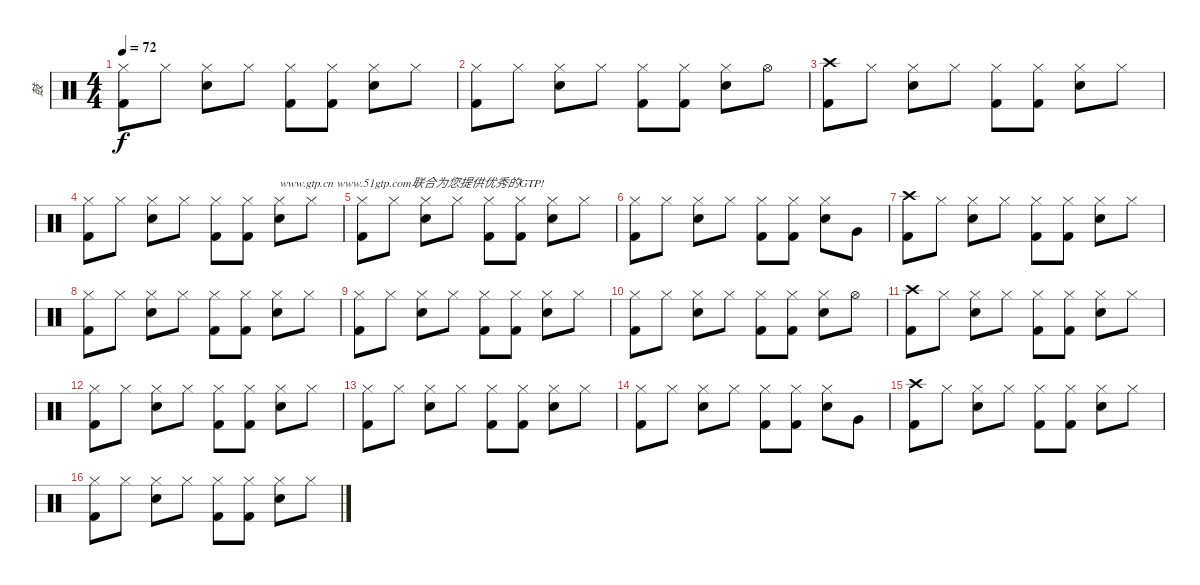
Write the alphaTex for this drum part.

\track ("鼓" "鼓") {instrument percussion}
\staff {score}
\articulation defaults
\ts (4 4)
\tempo 72
\clef neutral
\ks c
("Hi-Hat (closed)" "Kick (hit) 2").8{dy f} "Hi-Hat (closed)".8 ("Hi-Hat (closed)" "Electric Snare (hit)").8 "Hi-Hat (closed)".8 ("Hi-Hat (closed)" "Kick (hit) 2").8 ("Hi-Hat (closed)" "Kick (hit) 2").8 ("Hi-Hat (closed)" "Electric Snare (hit)").8 "Hi-Hat (closed)".8 |
("Hi-Hat (closed)" "Kick (hit) 2").8 "Hi-Hat (closed)".8 ("Hi-Hat (closed)" "Electric Snare (hit)").8 "Hi-Hat (closed)".8 ("Hi-Hat (closed)" "Kick (hit) 2").8 ("Hi-Hat (closed)" "Kick (hit) 2").8 ("Hi-Hat (closed)" "Electric Snare (hit)").8 "Hi-Hat (open)".8 |
("Crash high (hit)" "Kick (hit) 2").8 "Hi-Hat (closed)".8 ("Hi-Hat (closed)" "Electric Snare (hit)").8 "Hi-Hat (closed)".8 ("Hi-Hat (closed)" "Kick (hit) 2").8 ("Hi-Hat (closed)" "Kick (hit) 2").8 ("Hi-Hat (closed)" "Electric Snare (hit)").8 "Hi-Hat (closed)".8 |
("Hi-Hat (closed)" "Kick (hit) 2").8 "Hi-Hat (closed)".8 ("Hi-Hat (closed)" "Electric Snare (hit)").8 "Hi-Hat (closed)".8 ("Hi-Hat (closed)" "Kick (hit) 2").8 ("Hi-Hat (closed)" "Kick (hit) 2").8 ("Hi-Hat (closed)" "Electric Snare (hit)").8{txt "www.gtp.cn www.51gtp.com联合为您提供优秀的GTP!"} "Hi-Hat (closed)".8 |
("Hi-Hat (closed)" "Kick (hit) 2").8 "Hi-Hat (closed)".8 ("Hi-Hat (closed)" "Electric Snare (hit)").8 "Hi-Hat (closed)".8 ("Hi-Hat (closed)" "Kick (hit) 2").8 ("Hi-Hat (closed)" "Kick (hit) 2").8 ("Hi-Hat (closed)" "Electric Snare (hit)").8 "Hi-Hat (closed)".8 |
("Hi-Hat (closed)" "Kick (hit) 2").8 "Hi-Hat (closed)".8 ("Hi-Hat (closed)" "Electric Snare (hit)").8 "Hi-Hat (closed)".8 ("Hi-Hat (closed)" "Kick (hit) 2").8 ("Hi-Hat (closed)" "Kick (hit) 2").8 ("Hi-Hat (closed)" "Electric Snare (hit)").8 "Very Low Tom (hit)".8 |
("Crash high (hit)" "Kick (hit) 2").8 "Hi-Hat (closed)".8 ("Hi-Hat (closed)" "Electric Snare (hit)").8 "Hi-Hat (closed)".8 ("Hi-Hat (closed)" "Kick (hit) 2").8 ("Hi-Hat (closed)" "Kick (hit) 2").8 ("Hi-Hat (closed)" "Electric Snare (hit)").8 "Hi-Hat (closed)".8 |
("Hi-Hat (closed)" "Kick (hit) 2").8 "Hi-Hat (closed)".8 ("Hi-Hat (closed)" "Electric Snare (hit)").8 "Hi-Hat (closed)".8 ("Hi-Hat (closed)" "Kick (hit) 2").8 ("Hi-Hat (closed)" "Kick (hit) 2").8 ("Hi-Hat (closed)" "Electric Snare (hit)").8 "Hi-Hat (closed)".8 |
("Hi-Hat (closed)" "Kick (hit) 2").8 "Hi-Hat (closed)".8 ("Hi-Hat (closed)" "Electric Snare (hit)").8 "Hi-Hat (closed)".8 ("Hi-Hat (closed)" "Kick (hit) 2").8 ("Hi-Hat (closed)" "Kick (hit) 2").8 ("Hi-Hat (closed)" "Electric Snare (hit)").8 "Hi-Hat (closed)".8 |
("Hi-Hat (closed)" "Kick (hit) 2").8 "Hi-Hat (closed)".8 ("Hi-Hat (closed)" "Electric Snare (hit)").8 "Hi-Hat (closed)".8 ("Hi-Hat (closed)" "Kick (hit) 2").8 ("Hi-Hat (closed)" "Kick (hit) 2").8 ("Hi-Hat (closed)" "Electric Snare (hit)").8 "Hi-Hat (open)".8 |
("Crash high (hit)" "Kick (hit) 2").8 "Hi-Hat (closed)".8 ("Hi-Hat (closed)" "Electric Snare (hit)").8 "Hi-Hat (closed)".8 ("Hi-Hat (closed)" "Kick (hit) 2").8 ("Hi-Hat (closed)" "Kick (hit) 2").8 ("Hi-Hat (closed)" "Electric Snare (hit)").8 "Hi-Hat (closed)".8 |
("Hi-Hat (closed)" "Kick (hit) 2").8 "Hi-Hat (closed)".8 ("Hi-Hat (closed)" "Electric Snare (hit)").8 "Hi-Hat (closed)".8 ("Hi-Hat (closed)" "Kick (hit) 2").8 ("Hi-Hat (closed)" "Kick (hit) 2").8 ("Hi-Hat (closed)" "Electric Snare (hit)").8 "Hi-Hat (closed)".8 |
("Hi-Hat (closed)" "Kick (hit) 2").8 "Hi-Hat (closed)".8 ("Hi-Hat (closed)" "Electric Snare (hit)").8 "Hi-Hat (closed)".8 ("Hi-Hat (closed)" "Kick (hit) 2").8 ("Hi-Hat (closed)" "Kick (hit) 2").8 ("Hi-Hat (closed)" "Electric Snare (hit)").8 "Hi-Hat (closed)".8 |
("Hi-Hat (closed)" "Kick (hit) 2").8 "Hi-Hat (closed)".8 ("Hi-Hat (closed)" "Electric Snare (hit)").8 "Hi-Hat (closed)".8 ("Hi-Hat (closed)" "Kick (hit) 2").8 ("Hi-Hat (closed)" "Kick (hit) 2").8 ("Hi-Hat (closed)" "Electric Snare (hit)").8 "Very Low Tom (hit)".8 |
("Crash high (hit)" "Kick (hit) 2").8 "Hi-Hat (closed)".8 ("Hi-Hat (closed)" "Electric Snare (hit)").8 "Hi-Hat (closed)".8 ("Hi-Hat (closed)" "Kick (hit) 2").8 ("Hi-Hat (closed)" "Kick (hit) 2").8 ("Hi-Hat (closed)" "Electric Snare (hit)").8 "Hi-Hat (closed)".8 |
("Hi-Hat (closed)" "Kick (hit) 2").8 "Hi-Hat (closed)".8 ("Hi-Hat (closed)" "Electric Snare (hit)").8 "Hi-Hat (closed)".8 ("Hi-Hat (closed)" "Kick (hit) 2").8 ("Hi-Hat (closed)" "Kick (hit) 2").8 ("Hi-Hat (closed)" "Electric Snare (hit)").8 "Hi-Hat (closed)".8
